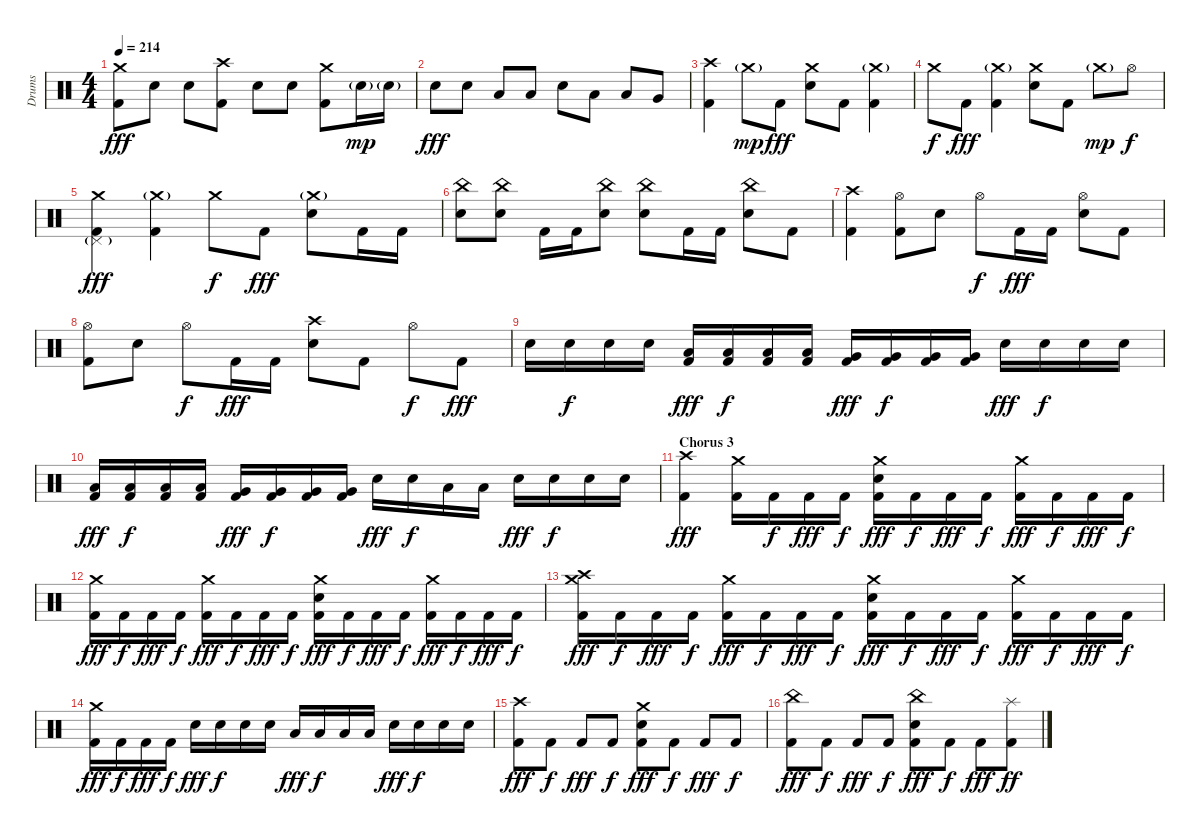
\track ("Drums" "Drums") {instrument percussion}
\staff {score}
\articulation defaults
\ts (4 4)
\tempo 214
\clef neutral
\ks c
("Crash medium (hit)" "Kick (hit) 2").8{dy fff} "Electric Snare (hit)".8 "Electric Snare (hit)".8 ("Crash high (hit)" "Kick (hit) 2").8 "Electric Snare (hit)".8 "Electric Snare (hit)".8 ("Crash medium (hit)" "Kick (hit) 2").8 "Electric Snare (hit)"{g}.16{dy mp} "Electric Snare (hit)"{g}.16 |
"Electric Snare (hit)".8{dy fff} "Electric Snare (hit)".8 "Low Tom (hit)".8 "Low Tom (hit)".8 "Electric Snare (hit)".8 "Low Tom (hit)".8 "Low Tom (hit)".8 "Very Low Tom (hit)".8 |
("Crash high (hit)" "Kick (hit) 2").4 "Crash medium (hit)"{g}.8{dy mp} "Kick (hit) 2".8{dy fff} ("Crash medium (hit)" "Electric Snare (hit)").8 "Kick (hit) 2".8 ("Crash medium (hit)"{g} "Kick (hit) 2").4 |
"Crash medium (hit)".8{dy f} "Kick (hit) 2".8{dy fff} ("Crash medium (hit)"{g} "Kick (hit) 2").4 ("Crash medium (hit)" "Electric Snare (hit)").8 "Kick (hit) 2".8 "Crash medium (hit)"{g}.8{dy mp} "Hi-Hat (open)".8{dy f} |
("Crash medium (hit)" "Pedal Hi-Hat (hit)"{g} "Kick (hit) 2").4{dy fff} ("Crash medium (hit)"{g} "Kick (hit) 2").4 "Crash medium (hit)".8{dy f} "Kick (hit) 2".8{dy fff} ("Crash medium (hit)"{g} "Electric Snare (hit)").8 "Kick (hit) 2".16 "Kick (hit) 2".16 |
("China (hit)" "Electric Snare (hit)").8 ("China (hit)" "Electric Snare (hit)").8 "Kick (hit) 2".16 "Kick (hit) 2".16 ("China (hit)" "Electric Snare (hit)").8 ("China (hit)" "Electric Snare (hit)").8 "Kick (hit) 2".16 "Kick (hit) 2".16 ("China (hit)" "Electric Snare (hit)").8 "Kick (hit) 2".8 |
("Crash high (hit)" "Kick (hit) 2").4 ("Hi-Hat (open)" "Kick (hit) 2").8 "Electric Snare (hit)".8 "Hi-Hat (open)".8{dy f} "Kick (hit) 2".16{dy fff} "Kick (hit) 2".16 ("Hi-Hat (open)" "Electric Snare (hit)").8 "Kick (hit) 2".8 |
("Hi-Hat (open)" "Kick (hit) 2").8 "Electric Snare (hit)".8 "Hi-Hat (open)".8{dy f} "Kick (hit) 2".16{dy fff} "Kick (hit) 2".16 ("Crash high (hit)" "Electric Snare (hit)").8 "Kick (hit) 2".8 "Hi-Hat (open)".8{dy f} "Kick (hit) 2".8{dy fff} |
"Electric Snare (hit)".16 "Electric Snare (hit)".16{dy f} "Electric Snare (hit)".16 "Electric Snare (hit)".16 ("Low Tom (hit)" "Kick (hit) 2").16{dy fff} ("Low Tom (hit)" "Kick (hit) 2").16{dy f} ("Low Tom (hit)" "Kick (hit) 2").16 ("Low Tom (hit)" "Kick (hit) 2").16 ("Very Low Tom (hit)" "Kick (hit) 2").16{dy fff} ("Very Low Tom (hit)" "Kick (hit) 2").16{dy f} ("Very Low Tom (hit)" "Kick (hit) 2").16 ("Very Low Tom (hit)" "Kick (hit) 2").16 "Electric Snare (hit)".16{dy fff} "Electric Snare (hit)".16{dy f} "Electric Snare (hit)".16 "Electric Snare (hit)".16 |
("Low Tom (hit)" "Kick (hit) 2").16{dy fff} ("Low Tom (hit)" "Kick (hit) 2").16{dy f} ("Low Tom (hit)" "Kick (hit) 2").16 ("Low Tom (hit)" "Kick (hit) 2").16 ("Very Low Tom (hit)" "Kick (hit) 2").16{dy fff} ("Very Low Tom (hit)" "Kick (hit) 2").16{dy f} ("Very Low Tom (hit)" "Kick (hit) 2").16 ("Very Low Tom (hit)" "Kick (hit) 2").16 "Electric Snare (hit)".16{dy fff} "Electric Snare (hit)".16{dy f} "Low Tom (hit)".16 "Low Tom (hit)".16 "Electric Snare (hit)".16{dy fff} "Electric Snare (hit)".16{dy f} "Electric Snare (hit)".16 "Electric Snare (hit)".16 |
\section ("" "Chorus 3")
("Crash high (hit)" "Kick (hit) 2").4{dy fff} ("Crash medium (hit)" "Kick (hit) 2").16 "Kick (hit) 2".16{dy f} "Kick (hit) 2".16{dy fff} "Kick (hit) 2".16{dy f} ("Crash medium (hit)" "Electric Snare (hit)" "Kick (hit) 2").16{dy fff} "Kick (hit) 2".16{dy f} "Kick (hit) 2".16{dy fff} "Kick (hit) 2".16{dy f} ("Crash medium (hit)" "Kick (hit) 2").16{dy fff} "Kick (hit) 2".16{dy f} "Kick (hit) 2".16{dy fff} "Kick (hit) 2".16{dy f} |
("Crash medium (hit)" "Kick (hit) 2").16{dy fff} "Kick (hit) 2".16{dy f} "Kick (hit) 2".16{dy fff} "Kick (hit) 2".16{dy f} ("Crash medium (hit)" "Kick (hit) 2").16{dy fff} "Kick (hit) 2".16{dy f} "Kick (hit) 2".16{dy fff} "Kick (hit) 2".16{dy f} ("Crash medium (hit)" "Electric Snare (hit)" "Kick (hit) 2").16{dy fff} "Kick (hit) 2".16{dy f} "Kick (hit) 2".16{dy fff} "Kick (hit) 2".16{dy f} ("Crash medium (hit)" "Kick (hit) 2").16{dy fff} "Kick (hit) 2".16{dy f} "Kick (hit) 2".16{dy fff} "Kick (hit) 2".16{dy f} |
("Crash medium (hit)" "Crash high (hit)" "Kick (hit) 2").16{dy fff} "Kick (hit) 2".16{dy f} "Kick (hit) 2".16{dy fff} "Kick (hit) 2".16{dy f} ("Crash medium (hit)" "Kick (hit) 2").16{dy fff} "Kick (hit) 2".16{dy f} "Kick (hit) 2".16{dy fff} "Kick (hit) 2".16{dy f} ("Crash medium (hit)" "Electric Snare (hit)" "Kick (hit) 2").16{dy fff} "Kick (hit) 2".16{dy f} "Kick (hit) 2".16{dy fff} "Kick (hit) 2".16{dy f} ("Crash medium (hit)" "Kick (hit) 2").16{dy fff} "Kick (hit) 2".16{dy f} "Kick (hit) 2".16{dy fff} "Kick (hit) 2".16{dy f} |
("Crash medium (hit)" "Kick (hit) 2").16{dy fff} "Kick (hit) 2".16{dy f} "Kick (hit) 2".16{dy fff} "Kick (hit) 2".16{dy f} "Electric Snare (hit)".16{dy fff} "Electric Snare (hit)".16{dy f} "Electric Snare (hit)".16 "Electric Snare (hit)".16 "Low Tom (hit)".16{dy fff} "Low Tom (hit)".16{dy f} "Low Tom (hit)".16 "Low Tom (hit)".16 "Electric Snare (hit)".16{dy fff} "Electric Snare (hit)".16{dy f} "Electric Snare (hit)".16 "Electric Snare (hit)".16 |
("Crash high (hit)" "Kick (hit) 2").8{dy fff} "Kick (hit) 2".8{dy f} "Kick (hit) 2".8{dy fff} "Kick (hit) 2".8{dy f} ("Crash medium (hit)" "Electric Snare (hit)" "Kick (hit) 2").8{dy fff} "Kick (hit) 2".8{dy f} "Kick (hit) 2".8{dy fff} "Kick (hit) 2".8{dy f} |
("China (hit)" "Kick (hit) 2").8{dy fff} "Kick (hit) 2".8{dy f} "Kick (hit) 2".8{dy fff} "Kick (hit) 2".8{dy f} ("China (hit)" "Electric Snare (hit)" "Kick (hit) 2").8{dy fff} "Kick (hit) 2".8{dy f} "Kick (hit) 2".8{dy fff} ("Splash (hit)" "Kick (hit) 2").8{dy ff}
